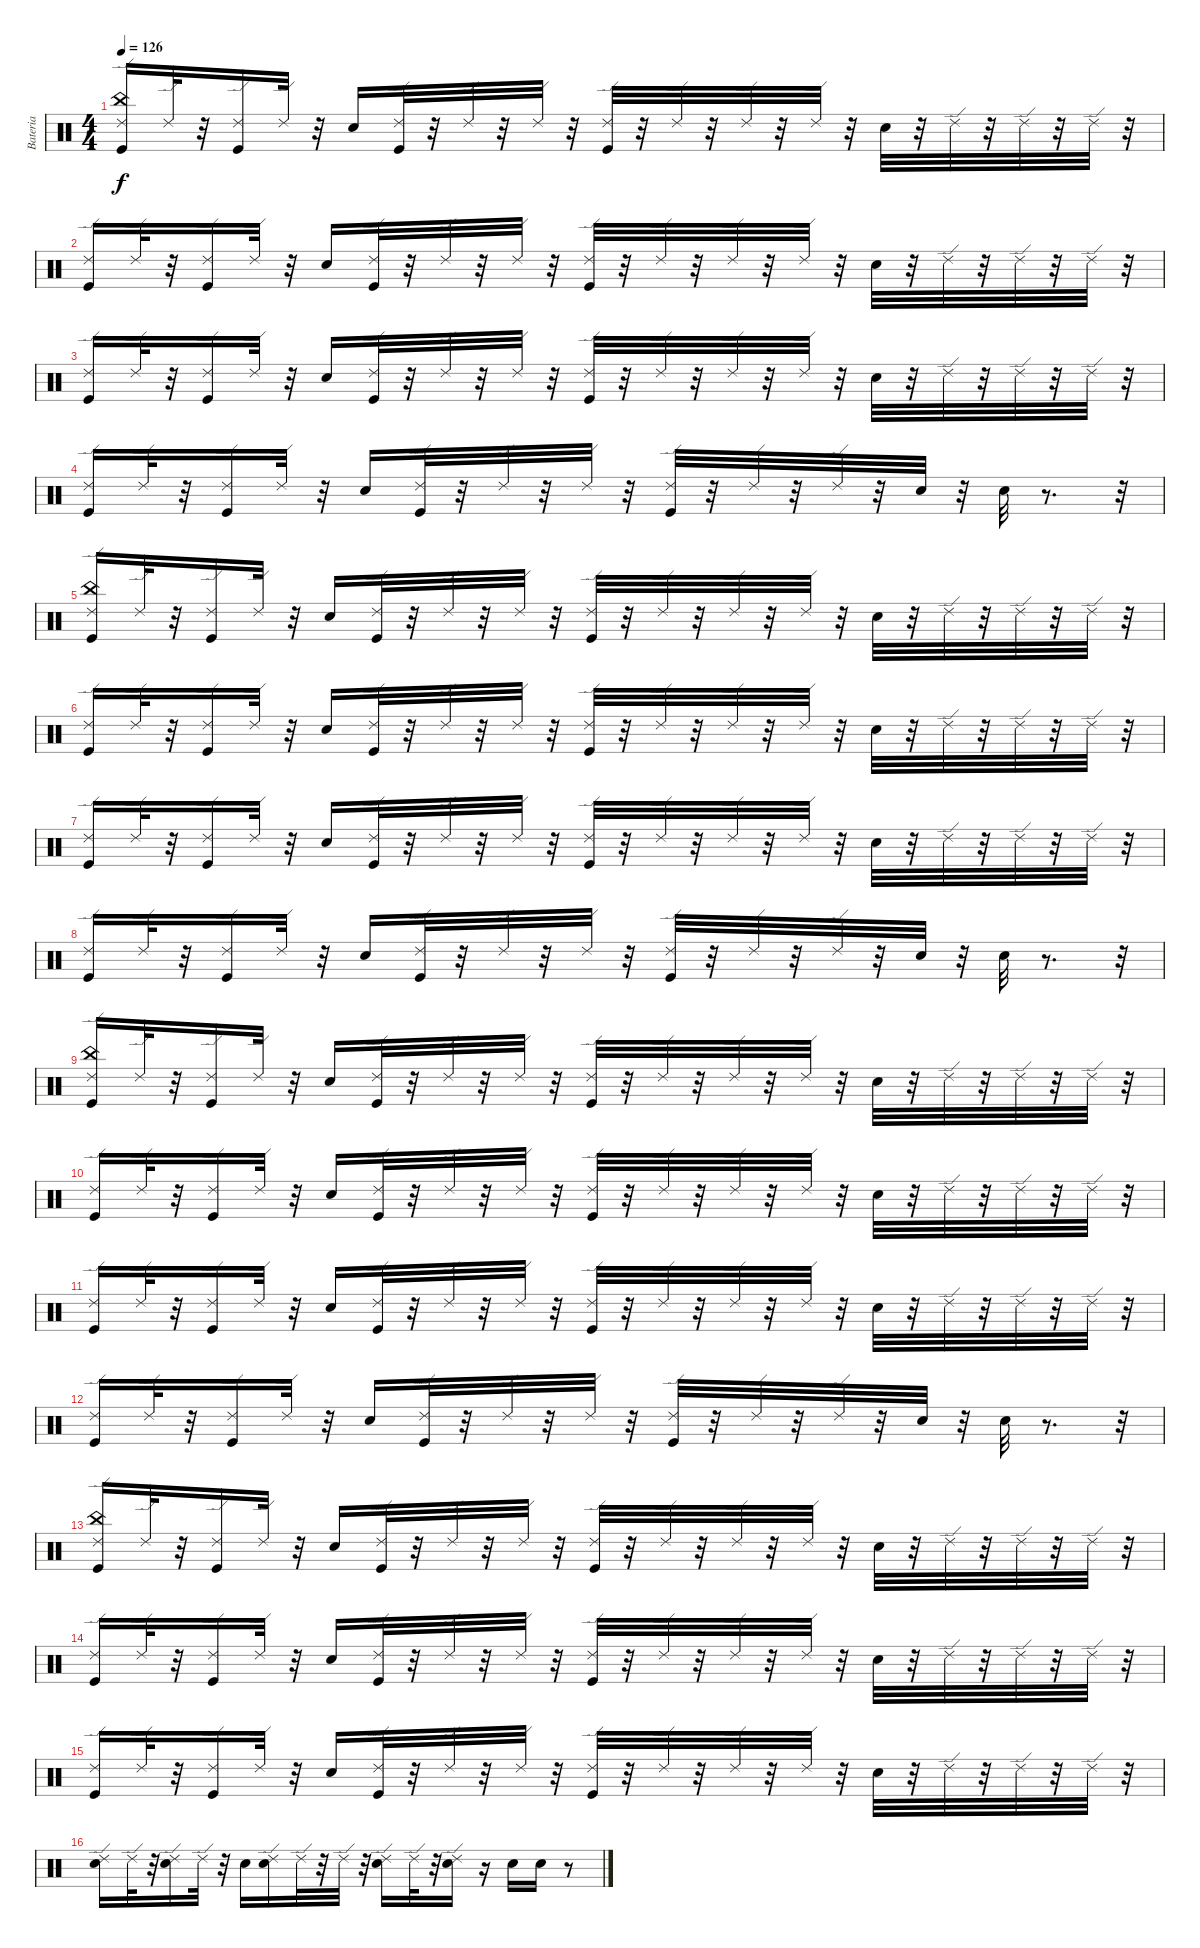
\track ("Bateria" "Bateria") {instrument percussion}
\staff {score}
\articulation defaults
\ts (4 4)
\tempo 126
\clef neutral
\ks c
("Ride (edge) 2" "China (hit)" "Kick (hit)").16{dy f} "Ride (edge) 2".32 r.32 ("Ride (edge) 2" "Kick (hit)").16 "Ride (edge) 2".32 r.32 "Snare (hit) 2".16 ("Kick (hit)" "Ride (edge) 2").32 r.32 "Ride (edge) 2".32 r.32 "Ride (edge) 2".32 r.32 ("Kick (hit)" "Ride (edge) 2").32 r.32 "Ride (edge) 2".32 r.32 "Ride (edge) 2".32 r.32 "Ride (edge) 2".32 r.32 "Snare (hit) 2".32 r.32 "Ride (edge) 2".32 r.32 "Ride (edge) 2".32 r.32 "Ride (edge) 2".32 r.32 |
("Ride (edge) 2" "Kick (hit)").16 "Ride (edge) 2".32 r.32 ("Kick (hit)" "Ride (edge) 2").16 "Ride (edge) 2".32 r.32 "Snare (hit) 2".16 ("Ride (edge) 2" "Kick (hit)").32 r.32 "Ride (edge) 2".32 r.32 "Ride (edge) 2".32 r.32 ("Kick (hit)" "Ride (edge) 2").32 r.32 "Ride (edge) 2".32 r.32 "Ride (edge) 2".32 r.32 "Ride (edge) 2".32 r.32 "Snare (hit) 2".32 r.32 "Ride (edge) 2".32 r.32 "Ride (edge) 2".32 r.32 "Ride (edge) 2".32 r.32 |
("Kick (hit)" "Ride (edge) 2").16 "Ride (edge) 2".32 r.32 ("Kick (hit)" "Ride (edge) 2").16 "Ride (edge) 2".32 r.32 "Snare (hit) 2".16 ("Ride (edge) 2" "Kick (hit)").32 r.32 "Ride (edge) 2".32 r.32 "Ride (edge) 2".32 r.32 ("Ride (edge) 2" "Kick (hit)").32 r.32 "Ride (edge) 2".32 r.32 "Ride (edge) 2".32 r.32 "Ride (edge) 2".32 r.32 "Snare (hit) 2".32 r.32 "Ride (edge) 2".32 r.32 "Ride (edge) 2".32 r.32 "Ride (edge) 2".32 r.32 |
("Kick (hit)" "Ride (edge) 2").16 "Ride (edge) 2".32 r.32 ("Kick (hit)" "Ride (edge) 2").16 "Ride (edge) 2".32 r.32 "Snare (hit) 2".16 ("Kick (hit)" "Ride (edge) 2").32 r.32 "Ride (edge) 2".32 r.32 "Ride (edge) 2".32 r.32 ("Kick (hit)" "Ride (edge) 2").32 r.32 "Ride (edge) 2".32 r.32 "Ride (edge) 2".32 r.32 "Snare (hit) 2".32 r.32 "Snare (hit) 2".32 r.8{d} r.32 |
("Ride (edge) 2" "China (hit)" "Kick (hit)").16 "Ride (edge) 2".32 r.32 ("Ride (edge) 2" "Kick (hit)").16 "Ride (edge) 2".32 r.32 "Snare (hit) 2".16 ("Kick (hit)" "Ride (edge) 2").32 r.32 "Ride (edge) 2".32 r.32 "Ride (edge) 2".32 r.32 ("Kick (hit)" "Ride (edge) 2").32 r.32 "Ride (edge) 2".32 r.32 "Ride (edge) 2".32 r.32 "Ride (edge) 2".32 r.32 "Snare (hit) 2".32 r.32 "Ride (edge) 2".32 r.32 "Ride (edge) 2".32 r.32 "Ride (edge) 2".32 r.32 |
("Ride (edge) 2" "Kick (hit)").16 "Ride (edge) 2".32 r.32 ("Kick (hit)" "Ride (edge) 2").16 "Ride (edge) 2".32 r.32 "Snare (hit) 2".16 ("Ride (edge) 2" "Kick (hit)").32 r.32 "Ride (edge) 2".32 r.32 "Ride (edge) 2".32 r.32 ("Kick (hit)" "Ride (edge) 2").32 r.32 "Ride (edge) 2".32 r.32 "Ride (edge) 2".32 r.32 "Ride (edge) 2".32 r.32 "Snare (hit) 2".32 r.32 "Ride (edge) 2".32 r.32 "Ride (edge) 2".32 r.32 "Ride (edge) 2".32 r.32 |
("Kick (hit)" "Ride (edge) 2").16 "Ride (edge) 2".32 r.32 ("Kick (hit)" "Ride (edge) 2").16 "Ride (edge) 2".32 r.32 "Snare (hit) 2".16 ("Ride (edge) 2" "Kick (hit)").32 r.32 "Ride (edge) 2".32 r.32 "Ride (edge) 2".32 r.32 ("Ride (edge) 2" "Kick (hit)").32 r.32 "Ride (edge) 2".32 r.32 "Ride (edge) 2".32 r.32 "Ride (edge) 2".32 r.32 "Snare (hit) 2".32 r.32 "Ride (edge) 2".32 r.32 "Ride (edge) 2".32 r.32 "Ride (edge) 2".32 r.32 |
("Kick (hit)" "Ride (edge) 2").16 "Ride (edge) 2".32 r.32 ("Kick (hit)" "Ride (edge) 2").16 "Ride (edge) 2".32 r.32 "Snare (hit) 2".16 ("Kick (hit)" "Ride (edge) 2").32 r.32 "Ride (edge) 2".32 r.32 "Ride (edge) 2".32 r.32 ("Kick (hit)" "Ride (edge) 2").32 r.32 "Ride (edge) 2".32 r.32 "Ride (edge) 2".32 r.32 "Snare (hit) 2".32 r.32 "Snare (hit) 2".32 r.8{d} r.32 |
("Ride (edge) 2" "China (hit)" "Kick (hit)").16 "Ride (edge) 2".32 r.32 ("Ride (edge) 2" "Kick (hit)").16 "Ride (edge) 2".32 r.32 "Snare (hit) 2".16 ("Kick (hit)" "Ride (edge) 2").32 r.32 "Ride (edge) 2".32 r.32 "Ride (edge) 2".32 r.32 ("Kick (hit)" "Ride (edge) 2").32 r.32 "Ride (edge) 2".32 r.32 "Ride (edge) 2".32 r.32 "Ride (edge) 2".32 r.32 "Snare (hit) 2".32 r.32 "Ride (edge) 2".32 r.32 "Ride (edge) 2".32 r.32 "Ride (edge) 2".32 r.32 |
("Ride (edge) 2" "Kick (hit)").16 "Ride (edge) 2".32 r.32 ("Kick (hit)" "Ride (edge) 2").16 "Ride (edge) 2".32 r.32 "Snare (hit) 2".16 ("Ride (edge) 2" "Kick (hit)").32 r.32 "Ride (edge) 2".32 r.32 "Ride (edge) 2".32 r.32 ("Kick (hit)" "Ride (edge) 2").32 r.32 "Ride (edge) 2".32 r.32 "Ride (edge) 2".32 r.32 "Ride (edge) 2".32 r.32 "Snare (hit) 2".32 r.32 "Ride (edge) 2".32 r.32 "Ride (edge) 2".32 r.32 "Ride (edge) 2".32 r.32 |
("Kick (hit)" "Ride (edge) 2").16 "Ride (edge) 2".32 r.32 ("Kick (hit)" "Ride (edge) 2").16 "Ride (edge) 2".32 r.32 "Snare (hit) 2".16 ("Ride (edge) 2" "Kick (hit)").32 r.32 "Ride (edge) 2".32 r.32 "Ride (edge) 2".32 r.32 ("Ride (edge) 2" "Kick (hit)").32 r.32 "Ride (edge) 2".32 r.32 "Ride (edge) 2".32 r.32 "Ride (edge) 2".32 r.32 "Snare (hit) 2".32 r.32 "Ride (edge) 2".32 r.32 "Ride (edge) 2".32 r.32 "Ride (edge) 2".32 r.32 |
("Kick (hit)" "Ride (edge) 2").16 "Ride (edge) 2".32 r.32 ("Kick (hit)" "Ride (edge) 2").16 "Ride (edge) 2".32 r.32 "Snare (hit) 2".16 ("Kick (hit)" "Ride (edge) 2").32 r.32 "Ride (edge) 2".32 r.32 "Ride (edge) 2".32 r.32 ("Kick (hit)" "Ride (edge) 2").32 r.32 "Ride (edge) 2".32 r.32 "Ride (edge) 2".32 r.32 "Snare (hit) 2".32 r.32 "Snare (hit) 2".32 r.8{d} r.32 |
("Ride (edge) 2" "China (hit)" "Kick (hit)").16 "Ride (edge) 2".32 r.32 ("Ride (edge) 2" "Kick (hit)").16 "Ride (edge) 2".32 r.32 "Snare (hit) 2".16 ("Kick (hit)" "Ride (edge) 2").32 r.32 "Ride (edge) 2".32 r.32 "Ride (edge) 2".32 r.32 ("Kick (hit)" "Ride (edge) 2").32 r.32 "Ride (edge) 2".32 r.32 "Ride (edge) 2".32 r.32 "Ride (edge) 2".32 r.32 "Snare (hit) 2".32 r.32 "Ride (edge) 2".32 r.32 "Ride (edge) 2".32 r.32 "Ride (edge) 2".32 r.32 |
("Ride (edge) 2" "Kick (hit)").16 "Ride (edge) 2".32 r.32 ("Kick (hit)" "Ride (edge) 2").16 "Ride (edge) 2".32 r.32 "Snare (hit) 2".16 ("Ride (edge) 2" "Kick (hit)").32 r.32 "Ride (edge) 2".32 r.32 "Ride (edge) 2".32 r.32 ("Kick (hit)" "Ride (edge) 2").32 r.32 "Ride (edge) 2".32 r.32 "Ride (edge) 2".32 r.32 "Ride (edge) 2".32 r.32 "Snare (hit) 2".32 r.32 "Ride (edge) 2".32 r.32 "Ride (edge) 2".32 r.32 "Ride (edge) 2".32 r.32 |
("Kick (hit)" "Ride (edge) 2").16 "Ride (edge) 2".32 r.32 ("Kick (hit)" "Ride (edge) 2").16 "Ride (edge) 2".32 r.32 "Snare (hit) 2".16 ("Ride (edge) 2" "Kick (hit)").32 r.32 "Ride (edge) 2".32 r.32 "Ride (edge) 2".32 r.32 ("Ride (edge) 2" "Kick (hit)").32 r.32 "Ride (edge) 2".32 r.32 "Ride (edge) 2".32 r.32 "Ride (edge) 2".32 r.32 "Snare (hit) 2".32 r.32 "Ride (edge) 2".32 r.32 "Ride (edge) 2".32 r.32 "Ride (edge) 2".32 r.32 |
("Snare (hit) 2" "Ride (edge) 2").16 "Ride (edge) 2".32 r.32 ("Snare (hit) 2" "Ride (edge) 2").16 "Ride (edge) 2".32 r.32 "Snare (hit) 2".16 ("Snare (hit) 2" "Ride (edge) 2").16 "Ride (edge) 2".32 r.32 "Ride (edge) 2".32 r.32 ("Ride (edge) 2" "Snare (hit) 2").16 "Ride (edge) 2".32 r.32 ("Ride (edge) 2" "Snare (hit) 2").16 r.16 "Snare (hit) 2".16 "Snare (hit) 2".16 r.8
